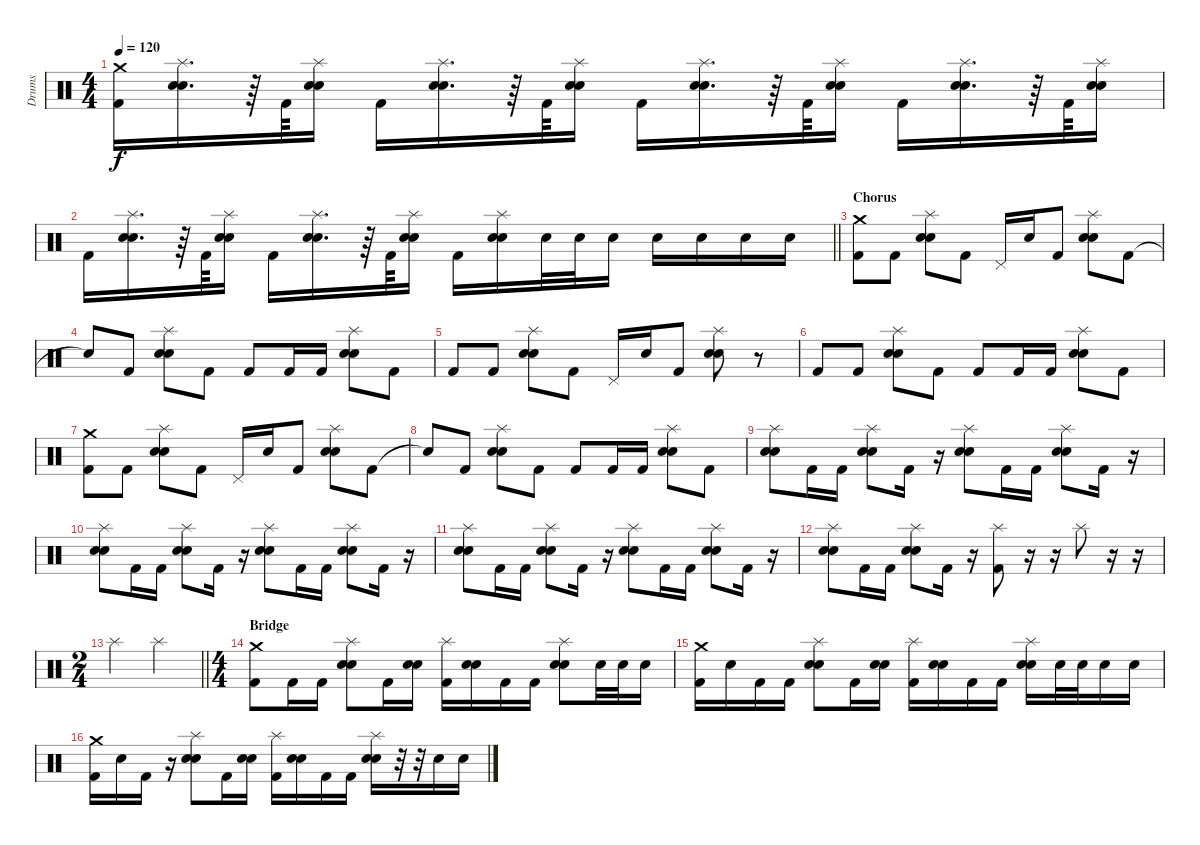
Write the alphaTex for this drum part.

\track ("Drums" "Drums") {instrument percussion}
\staff {score}
\articulation defaults
\ts (4 4)
\tempo 120
\clef neutral
\ks c
("Crash medium (hit)" "Kick (hit) 2").16{dy f} ("Splash (hit)" "Electric Snare (hit)" "Snare (hit) 2").16{d} r.64 "Kick (hit) 2".64 ("Splash (hit)" "Electric Snare (hit)" "Snare (hit) 2").16 "Kick (hit) 2".16 ("Splash (hit)" "Electric Snare (hit)" "Snare (hit) 2").16{d} r.64 "Kick (hit) 2".64 ("Splash (hit)" "Electric Snare (hit)" "Snare (hit) 2").16 "Kick (hit) 2".16 ("Splash (hit)" "Electric Snare (hit)" "Snare (hit) 2").16{d} r.64 "Kick (hit) 2".64 ("Splash (hit)" "Electric Snare (hit)" "Snare (hit) 2").16 "Kick (hit) 2".16 ("Splash (hit)" "Electric Snare (hit)" "Snare (hit) 2").16{d} r.64 "Kick (hit) 2".64 ("Splash (hit)" "Electric Snare (hit)" "Snare (hit) 2").16 |
\barLineRight lightlight "Kick (hit) 2".16
("Splash (hit)" "Electric Snare (hit)" "Snare (hit) 2").16{d} r.64 "Kick (hit) 2".64 ("Splash (hit)" "Electric Snare (hit)" "Snare (hit) 2").16 "Kick (hit) 2".16 ("Splash (hit)" "Electric Snare (hit)" "Snare (hit) 2").16{d} r.64 "Kick (hit) 2".64 ("Splash (hit)" "Electric Snare (hit)" "Snare (hit) 2").16 "Kick (hit) 2".16 ("Splash (hit)" "Electric Snare (hit)" "Snare (hit) 2").16 "Electric Snare (hit)".32 "Electric Snare (hit)".32 "Electric Snare (hit)".16 "Electric Snare (hit)".16 "Electric Snare (hit)".16 "Electric Snare (hit)".16 "Electric Snare (hit)".16 |
\section ("" "Chorus")
("Crash medium (hit)" "Kick (hit) 2").8 "Kick (hit) 2".8 ("Splash (hit)" "Electric Snare (hit)" "Snare (hit) 2").8 "Kick (hit) 2".8 "Pedal Hi-Hat (hit)".16 "Electric Snare (hit)".16 "Kick (hit) 2".8 ("Splash (hit)" "Electric Snare (hit)" "Snare (hit) 2").8 "Kick (hit) 2".8 |
"Snare (hit)"{t}.8 "Kick (hit) 2".8 ("Splash (hit)" "Electric Snare (hit)" "Snare (hit) 2").8 "Kick (hit) 2".8 "Kick (hit) 2".8 "Kick (hit) 2".16 "Kick (hit) 2".16 ("Splash (hit)" "Electric Snare (hit)" "Snare (hit) 2").8 "Kick (hit) 2".8 |
"Kick (hit) 2".8 "Kick (hit) 2".8 ("Splash (hit)" "Electric Snare (hit)" "Snare (hit) 2").8 "Kick (hit) 2".8 "Pedal Hi-Hat (hit)".16 "Electric Snare (hit)".16 "Kick (hit) 2".8 ("Splash (hit)" "Electric Snare (hit)" "Snare (hit) 2").8 r.8 |
"Kick (hit) 2".8 "Kick (hit) 2".8 ("Splash (hit)" "Electric Snare (hit)" "Snare (hit) 2").8 "Kick (hit) 2".8 "Kick (hit) 2".8 "Kick (hit) 2".16 "Kick (hit) 2".16 ("Splash (hit)" "Electric Snare (hit)" "Snare (hit) 2").8 "Kick (hit) 2".8 |
("Crash medium (hit)" "Kick (hit) 2").8 "Kick (hit) 2".8 ("Splash (hit)" "Electric Snare (hit)" "Snare (hit) 2").8 "Kick (hit) 2".8 "Pedal Hi-Hat (hit)".16 "Electric Snare (hit)".16 "Kick (hit) 2".8 ("Splash (hit)" "Electric Snare (hit)" "Snare (hit) 2").8 "Kick (hit) 2".8 |
"Snare (hit)"{t}.8 "Kick (hit) 2".8 ("Splash (hit)" "Electric Snare (hit)" "Snare (hit) 2").8 "Kick (hit) 2".8 "Kick (hit) 2".8 "Kick (hit) 2".16 "Kick (hit) 2".16 ("Splash (hit)" "Electric Snare (hit)" "Snare (hit) 2").8 "Kick (hit) 2".8 |
("Splash (hit)" "Electric Snare (hit)" "Snare (hit) 2").8 "Kick (hit) 2".16 "Kick (hit) 2".16 ("Splash (hit)" "Electric Snare (hit)" "Snare (hit) 2").8 "Kick (hit) 2".16 r.16 ("Splash (hit)" "Electric Snare (hit)" "Snare (hit) 2").8 "Kick (hit) 2".16 "Kick (hit) 2".16 ("Splash (hit)" "Electric Snare (hit)" "Snare (hit) 2").8 "Kick (hit) 2".16 r.16 |
("Splash (hit)" "Electric Snare (hit)" "Snare (hit) 2").8 "Kick (hit) 2".16 "Kick (hit) 2".16 ("Splash (hit)" "Electric Snare (hit)" "Snare (hit) 2").8 "Kick (hit) 2".16 r.16 ("Splash (hit)" "Electric Snare (hit)" "Snare (hit) 2").8 "Kick (hit) 2".16 "Kick (hit) 2".16 ("Splash (hit)" "Electric Snare (hit)" "Snare (hit) 2").8 "Kick (hit) 2".16 r.16 |
("Splash (hit)" "Electric Snare (hit)" "Snare (hit) 2").8 "Kick (hit) 2".16 "Kick (hit) 2".16 ("Splash (hit)" "Electric Snare (hit)" "Snare (hit) 2").8 "Kick (hit) 2".16 r.16 ("Splash (hit)" "Electric Snare (hit)" "Snare (hit) 2").8 "Kick (hit) 2".16 "Kick (hit) 2".16 ("Splash (hit)" "Electric Snare (hit)" "Snare (hit) 2").8 "Kick (hit) 2".16 r.16 |
("Splash (hit)" "Electric Snare (hit)" "Snare (hit) 2").8 "Kick (hit) 2".16 "Kick (hit) 2".16 ("Splash (hit)" "Electric Snare (hit)" "Snare (hit) 2").8 "Kick (hit) 2".16 r.16 ("Splash (hit)" "Kick (hit) 2").8 r.16 r.16 "Splash (hit)".8 r.16 r.16 |
\ts (2 4)
\barLineRight lightlight "Splash (hit)".4 "Splash (hit)".4
|
\ts (4 4)
\section ("" "Bridge")
("Crash medium (hit)" "Kick (hit) 2").8 "Kick (hit) 2".16 "Kick (hit) 2".16 ("Splash (hit)" "Electric Snare (hit)" "Snare (hit) 2").8 "Kick (hit) 2".16 ("Electric Snare (hit)" "Snare (hit) 2").16 ("Splash (hit)" "Kick (hit) 2").16 ("Electric Snare (hit)" "Snare (hit) 2").16 "Kick (hit) 2".16 "Kick (hit) 2".16 ("Splash (hit)" "Electric Snare (hit)" "Snare (hit) 2").8 "Electric Snare (hit)".32 "Electric Snare (hit)".32 "Electric Snare (hit)".16 |
("Crash medium (hit)" "Kick (hit) 2").16 "Electric Snare (hit)".16 "Kick (hit) 2".16 "Kick (hit) 2".16 ("Splash (hit)" "Electric Snare (hit)" "Snare (hit) 2").8 "Kick (hit) 2".16 ("Electric Snare (hit)" "Snare (hit) 2").16 ("Splash (hit)" "Kick (hit) 2").16 ("Electric Snare (hit)" "Snare (hit) 2").16 "Kick (hit) 2".16 "Kick (hit) 2".16 ("Splash (hit)" "Electric Snare (hit)" "Snare (hit) 2").16 "Electric Snare (hit)".32 "Electric Snare (hit)".32 "Electric Snare (hit)".16 "Electric Snare (hit)".16 |
("Crash medium (hit)" "Kick (hit) 2").16 "Electric Snare (hit)".16 "Kick (hit) 2".16 r.16 ("Splash (hit)" "Electric Snare (hit)" "Snare (hit) 2").8 "Kick (hit) 2".16 ("Electric Snare (hit)" "Snare (hit) 2").16 ("Splash (hit)" "Kick (hit) 2").16 ("Electric Snare (hit)" "Snare (hit) 2").16 "Kick (hit) 2".16 "Kick (hit) 2".16 ("Splash (hit)" "Electric Snare (hit)" "Snare (hit) 2").16 r.32 r.32 "Electric Snare (hit)".16 "Electric Snare (hit)".16
